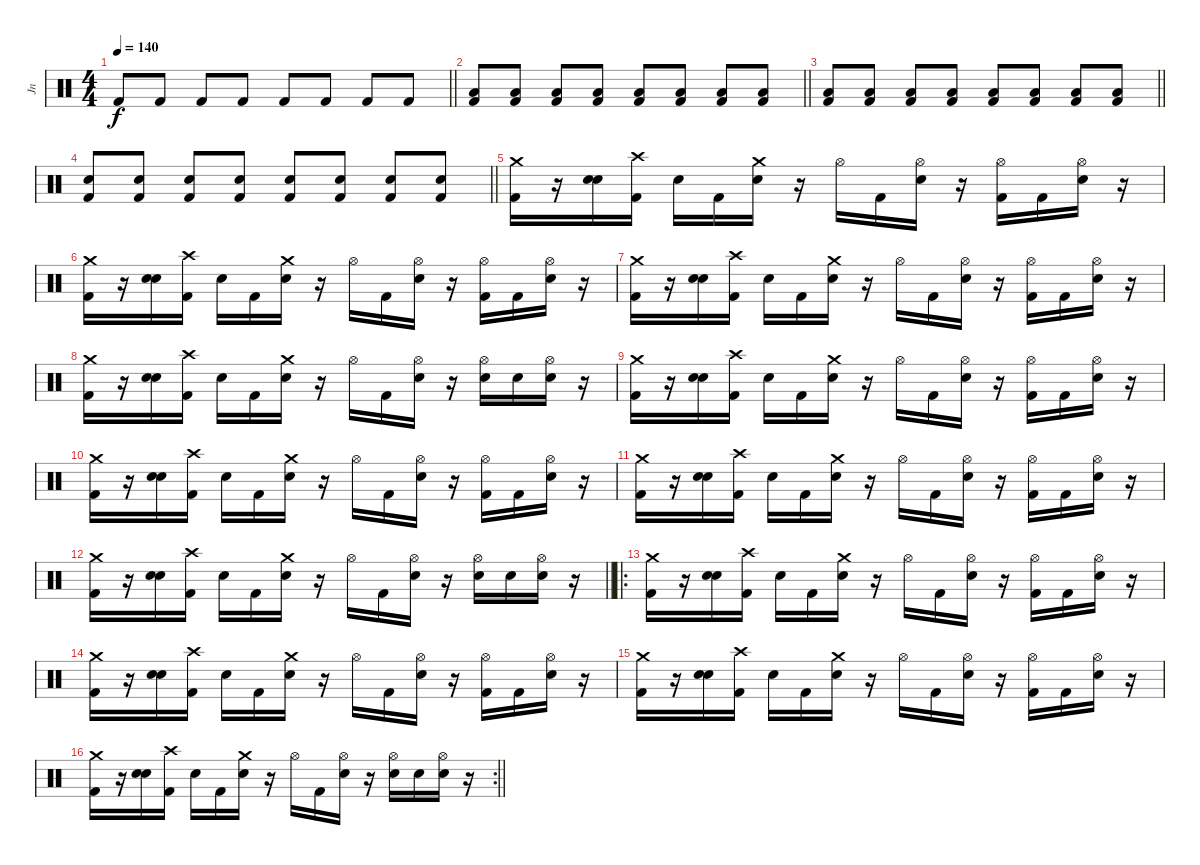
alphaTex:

\track ("Jn" "Jn") {instrument percussion}
\staff {score}
\articulation defaults
\ts (4 4)
\tempo 140
\clef neutral
\barLineRight lightlight
\ks c "Kick (hit) 2".8{dy f} "Kick (hit) 2".8 "Kick (hit) 2".8 "Kick (hit) 2".8 "Kick (hit) 2".8 "Kick (hit) 2".8 "Kick (hit) 2".8 "Kick (hit) 2".8
|
\barLineRight lightlight
("Low Tom (hit)" "Kick (hit) 2").8 ("Low Tom (hit)" "Kick (hit) 2").8 ("Low Tom (hit)" "Kick (hit) 2").8 ("Low Tom (hit)" "Kick (hit) 2").8 ("Low Tom (hit)" "Kick (hit) 2").8 ("Low Tom (hit)" "Kick (hit) 2").8 ("Low Tom (hit)" "Kick (hit) 2").8 ("Low Tom (hit)" "Kick (hit) 2").8 |
\barLineRight lightlight
("Low Tom (hit)" "Kick (hit) 2").8 ("Low Tom (hit)" "Kick (hit) 2").8 ("Low Tom (hit)" "Kick (hit) 2").8 ("Low Tom (hit)" "Kick (hit) 2").8 ("Low Tom (hit)" "Kick (hit) 2").8 ("Low Tom (hit)" "Kick (hit) 2").8 ("Low Tom (hit)" "Kick (hit) 2").8 ("Low Tom (hit)" "Kick (hit) 2").8 |
\barLineRight lightlight
("Electric Snare (hit)" "Kick (hit) 2").8 ("Electric Snare (hit)" "Kick (hit) 2").8 ("Electric Snare (hit)" "Kick (hit) 2").8 ("Electric Snare (hit)" "Kick (hit) 2").8 ("Electric Snare (hit)" "Kick (hit) 2").8 ("Electric Snare (hit)" "Kick (hit) 2").8 ("Electric Snare (hit)" "Kick (hit) 2").8 ("Electric Snare (hit)" "Kick (hit) 2").8 |
("Crash medium (hit)" "Kick (hit) 2").16 r.16 ("Snare (hit)" "Electric Snare (hit)").16 ("Crash high (hit)" "Kick (hit) 2").16 "Snare (hit)".16 "Kick (hit) 2".16 ("Crash medium (hit)" "Electric Snare (hit)").16 r.16 "Hi-Hat (open)".16 "Kick (hit) 2".16 ("Hi-Hat (open)" "Electric Snare (hit)").16 r.16 ("Hi-Hat (open)" "Kick (hit) 2").16 "Kick (hit) 2".16 ("Hi-Hat (open)" "Electric Snare (hit)").16 r.16 |
("Crash medium (hit)" "Kick (hit) 2").16 r.16 ("Snare (hit)" "Electric Snare (hit)").16 ("Crash high (hit)" "Kick (hit) 2").16 "Snare (hit)".16 "Kick (hit) 2".16 ("Crash medium (hit)" "Electric Snare (hit)").16 r.16 "Hi-Hat (open)".16 "Kick (hit) 2".16 ("Hi-Hat (open)" "Electric Snare (hit)").16 r.16 ("Hi-Hat (open)" "Kick (hit) 2").16 "Kick (hit) 2".16 ("Hi-Hat (open)" "Electric Snare (hit)").16 r.16 |
("Crash medium (hit)" "Kick (hit) 2").16 r.16 ("Snare (hit)" "Electric Snare (hit)").16 ("Crash high (hit)" "Kick (hit) 2").16 "Snare (hit)".16 "Kick (hit) 2".16 ("Crash medium (hit)" "Electric Snare (hit)").16 r.16 "Hi-Hat (open)".16 "Kick (hit) 2".16 ("Hi-Hat (open)" "Electric Snare (hit)").16 r.16 ("Hi-Hat (open)" "Kick (hit) 2").16 "Kick (hit) 2".16 ("Hi-Hat (open)" "Electric Snare (hit)").16 r.16 |
("Crash medium (hit)" "Kick (hit) 2").16 r.16 ("Snare (hit)" "Electric Snare (hit)").16 ("Crash high (hit)" "Kick (hit) 2").16 "Snare (hit)".16 "Kick (hit) 2".16 ("Crash medium (hit)" "Electric Snare (hit)").16 r.16 "Hi-Hat (open)".16 "Kick (hit) 2".16 ("Hi-Hat (open)" "Electric Snare (hit)").16 r.16 ("Hi-Hat (open)" "Electric Snare (hit)").16 "Electric Snare (hit)".16 ("Hi-Hat (open)" "Electric Snare (hit)").16 r.16 |
("Crash medium (hit)" "Kick (hit) 2").16 r.16 ("Snare (hit)" "Electric Snare (hit)").16 ("Crash high (hit)" "Kick (hit) 2").16 "Snare (hit)".16 "Kick (hit) 2".16 ("Crash medium (hit)" "Electric Snare (hit)").16 r.16 "Hi-Hat (open)".16 "Kick (hit) 2".16 ("Hi-Hat (open)" "Electric Snare (hit)").16 r.16 ("Hi-Hat (open)" "Kick (hit) 2").16 "Kick (hit) 2".16 ("Hi-Hat (open)" "Electric Snare (hit)").16 r.16 |
("Crash medium (hit)" "Kick (hit) 2").16 r.16 ("Snare (hit)" "Electric Snare (hit)").16 ("Crash high (hit)" "Kick (hit) 2").16 "Snare (hit)".16 "Kick (hit) 2".16 ("Crash medium (hit)" "Electric Snare (hit)").16 r.16 "Hi-Hat (open)".16 "Kick (hit) 2".16 ("Hi-Hat (open)" "Electric Snare (hit)").16 r.16 ("Hi-Hat (open)" "Kick (hit) 2").16 "Kick (hit) 2".16 ("Hi-Hat (open)" "Electric Snare (hit)").16 r.16 |
("Crash medium (hit)" "Kick (hit) 2").16 r.16 ("Snare (hit)" "Electric Snare (hit)").16 ("Crash high (hit)" "Kick (hit) 2").16 "Snare (hit)".16 "Kick (hit) 2".16 ("Crash medium (hit)" "Electric Snare (hit)").16 r.16 "Hi-Hat (open)".16 "Kick (hit) 2".16 ("Hi-Hat (open)" "Electric Snare (hit)").16 r.16 ("Hi-Hat (open)" "Kick (hit) 2").16 "Kick (hit) 2".16 ("Hi-Hat (open)" "Electric Snare (hit)").16 r.16 |
\barLineRight lightlight
("Crash medium (hit)" "Kick (hit) 2").16 r.16 ("Snare (hit)" "Electric Snare (hit)").16 ("Crash high (hit)" "Kick (hit) 2").16 "Snare (hit)".16 "Kick (hit) 2".16 ("Crash medium (hit)" "Electric Snare (hit)").16 r.16 "Hi-Hat (open)".16 "Kick (hit) 2".16 ("Hi-Hat (open)" "Electric Snare (hit)").16 r.16 ("Hi-Hat (open)" "Electric Snare (hit)").16 "Electric Snare (hit)".16 ("Hi-Hat (open)" "Electric Snare (hit)").16 r.16 |
\ro
("Crash medium (hit)" "Kick (hit) 2").16 r.16 ("Snare (hit)" "Electric Snare (hit)").16 ("Crash high (hit)" "Kick (hit) 2").16 "Snare (hit)".16 "Kick (hit) 2".16 ("Crash medium (hit)" "Electric Snare (hit)").16 r.16 "Hi-Hat (open)".16 "Kick (hit) 2".16 ("Hi-Hat (open)" "Electric Snare (hit)").16 r.16 ("Hi-Hat (open)" "Kick (hit) 2").16 "Kick (hit) 2".16 ("Hi-Hat (open)" "Electric Snare (hit)").16 r.16 |
("Crash medium (hit)" "Kick (hit) 2").16 r.16 ("Snare (hit)" "Electric Snare (hit)").16 ("Crash high (hit)" "Kick (hit) 2").16 "Snare (hit)".16 "Kick (hit) 2".16 ("Crash medium (hit)" "Electric Snare (hit)").16 r.16 "Hi-Hat (open)".16 "Kick (hit) 2".16 ("Hi-Hat (open)" "Electric Snare (hit)").16 r.16 ("Hi-Hat (open)" "Kick (hit) 2").16 "Kick (hit) 2".16 ("Hi-Hat (open)" "Electric Snare (hit)").16 r.16 |
("Crash medium (hit)" "Kick (hit) 2").16 r.16 ("Snare (hit)" "Electric Snare (hit)").16 ("Crash high (hit)" "Kick (hit) 2").16 "Snare (hit)".16 "Kick (hit) 2".16 ("Crash medium (hit)" "Electric Snare (hit)").16 r.16 "Hi-Hat (open)".16 "Kick (hit) 2".16 ("Hi-Hat (open)" "Electric Snare (hit)").16 r.16 ("Hi-Hat (open)" "Kick (hit) 2").16 "Kick (hit) 2".16 ("Hi-Hat (open)" "Electric Snare (hit)").16 r.16 |
\rc 2
\barLineRight lightlight
("Crash medium (hit)" "Kick (hit) 2").16 r.16 ("Snare (hit)" "Electric Snare (hit)").16 ("Crash high (hit)" "Kick (hit) 2").16 "Snare (hit)".16 "Kick (hit) 2".16 ("Crash medium (hit)" "Electric Snare (hit)").16 r.16 "Hi-Hat (open)".16 "Kick (hit) 2".16 ("Hi-Hat (open)" "Electric Snare (hit)").16 r.16 ("Hi-Hat (open)" "Electric Snare (hit)").16 "Electric Snare (hit)".16 ("Hi-Hat (open)" "Electric Snare (hit)").16 r.16
